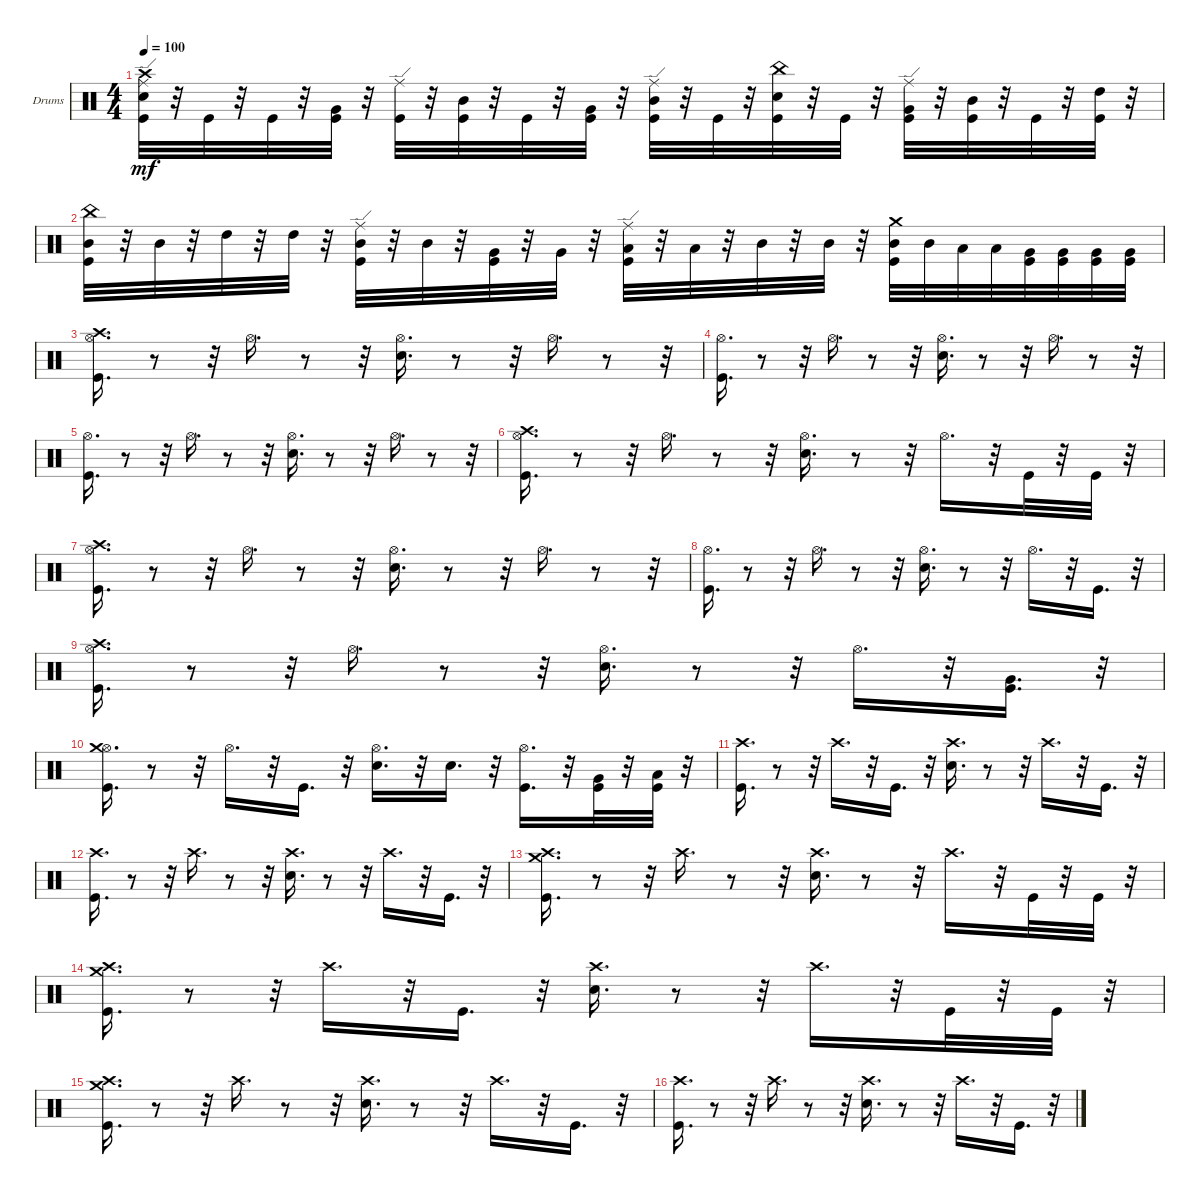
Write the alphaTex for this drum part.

\bracketExtendMode groupsimilarinstruments
\firstSystemTrackNameOrientation horizontal
\otherSystemsTrackNameOrientation horizontal
\track ("Drums" "Drums") {instrument percussion}
\staff {score}
\articulation defaults
\ts (4 4)
\tempo 100
\clef neutral
\ks c
("Ride (edge)" "Crash high (hit)" "Kick (hit)" "Snare (hit) 2").32{dy mf} r.32 "Kick (hit)".32 r.32 "Kick (hit)".32 r.32 ("Kick (hit)" "Very Low Tom (hit)").32 r.32 ("Ride (edge)" "Kick (hit)").32 r.32 ("Kick (hit)" "Mid Tom (hit)").32 r.32 "Kick (hit)".32 r.32 ("Kick (hit)" "Very Low Tom (hit)").32 r.32 ("Ride (edge)" "Kick (hit)" "Mid Tom (hit)").32 r.32 "Kick (hit)".32 r.32 ("China (hit)" "Snare (hit) 2" "Kick (hit)").32 r.32 "Kick (hit)".32 r.32 ("Ride (edge)" "Very Low Tom (hit)" "Kick (hit)").32 r.32 ("Mid Tom (hit)" "Kick (hit)").32 r.32 "Kick (hit)".32 r.32 ("High Tom (hit)" "Kick (hit)").32 r.32 |
("China (hit)" "Mid Tom (hit)" "Kick (hit)").32 r.32 "Mid Tom (hit)".32 r.32 "High Tom (hit)".32 r.32 "High Tom (hit)".32 r.32 ("Ride (edge)" "Kick (hit)" "Mid Tom (hit)").32 r.32 "Mid Tom (hit)".32 r.32 ("Kick (hit)" "Very Low Tom (hit)").32 r.32 "Very Low Tom (hit)".32 r.32 ("Ride (edge)" "Low Tom (hit)" "Kick (hit)").32 r.32 "Low Tom (hit)".32 r.32 "Mid Tom (hit)".32 r.32 "Mid Tom (hit)".32 r.32 ("Crash medium (hit)" "Mid Tom (hit)" "Kick (hit)").32 "Mid Tom (hit)".32 "Low Tom (hit)".32 "Low Tom (hit)".32 ("Very Low Tom (hit)" "Kick (hit)").32 ("Very Low Tom (hit)" "Kick (hit)").32 ("Very Low Tom (hit)" "Kick (hit)").32 ("Very Low Tom (hit)" "Kick (hit)").32 |
("Hi-Hat (open)" "Crash high (hit)" "Kick (hit)").16{d} r.8 r.32 "Hi-Hat (open)".16{d} r.8 r.32 ("Hi-Hat (open)" "Snare (hit) 2").16{d} r.8 r.32 "Hi-Hat (open)".16{d} r.8 r.32 |
("Hi-Hat (open)" "Kick (hit)").16{d} r.8 r.32 "Hi-Hat (open)".16{d} r.8 r.32 ("Hi-Hat (open)" "Snare (hit) 2").16{d} r.8 r.32 "Hi-Hat (open)".16{d} r.8 r.32 |
("Hi-Hat (open)" "Kick (hit)").16{d} r.8 r.32 "Hi-Hat (open)".16{d} r.8 r.32 ("Hi-Hat (open)" "Snare (hit) 2").16{d} r.8 r.32 "Hi-Hat (open)".16{d} r.8 r.32 |
("Hi-Hat (open)" "Crash high (hit)" "Kick (hit)").16{d} r.8 r.32 "Hi-Hat (open)".16{d} r.8 r.32 ("Hi-Hat (open)" "Snare (hit) 2").16{d} r.8 r.32 "Hi-Hat (open)".16{d} r.32 "Kick (hit)".32 r.32 "Kick (hit)".32 r.32 |
("Hi-Hat (open)" "Crash high (hit)" "Kick (hit)").16{d} r.8 r.32 "Hi-Hat (open)".16{d} r.8 r.32 ("Hi-Hat (open)" "Snare (hit) 2").16{d} r.8 r.32 "Hi-Hat (open)".16{d} r.8 r.32 |
("Hi-Hat (open)" "Kick (hit)").16{d} r.8 r.32 "Hi-Hat (open)".16{d} r.8 r.32 ("Hi-Hat (open)" "Snare (hit) 2").16{d} r.8 r.32 "Hi-Hat (open)".16{d} r.32 "Kick (hit)".16{d} r.32 |
("Hi-Hat (open)" "Crash high (hit)" "Kick (hit)").16{d} r.8 r.32 "Hi-Hat (open)".16{d} r.8 r.32 ("Hi-Hat (open)" "Snare (hit) 2").16{d} r.8 r.32 "Hi-Hat (open)".16{d} r.32 ("Very Low Tom (hit)" "Kick (hit)").16{d} r.32 |
("Hi-Hat (open)" "Kick (hit)" "Crash medium (hit)").16{d} r.8 r.32 "Hi-Hat (open)".16{d} r.32 "Kick (hit)".16{d} r.32 ("Hi-Hat (open)" "Snare (hit) 2").16{d} r.32 "Snare (hit) 2".16{d} r.32 ("Hi-Hat (open)" "Kick (hit)").16{d} r.32 ("Very Low Tom (hit)" "Kick (hit)").32 r.32 ("Low Tom (hit)" "Kick (hit)").32 r.32 |
("Crash high (hit)" "Kick (hit)").16{d} r.8 r.32 "Crash high (hit)".16{d} r.32 "Kick (hit)".16{d} r.32 ("Crash high (hit)" "Snare (hit) 2").16{d} r.8 r.32 "Crash high (hit)".16{d} r.32 "Kick (hit)".16{d} r.32 |
("Crash high (hit)" "Kick (hit)").16{d} r.8 r.32 "Crash high (hit)".16{d} r.8 r.32 ("Crash high (hit)" "Snare (hit) 2").16{d} r.8 r.32 "Crash high (hit)".16{d} r.32 "Kick (hit)".16{d} r.32 |
("Crash medium (hit)" "Kick (hit)" "Crash high (hit)").16{d} r.8 r.32 "Crash high (hit)".16{d} r.8 r.32 ("Snare (hit) 2" "Crash high (hit)").16{d} r.8 r.32 "Crash high (hit)".16{d} r.32 "Kick (hit)".32 r.32 "Kick (hit)".32 r.32 |
("Kick (hit)" "Crash high (hit)" "Crash medium (hit)").16{d} r.8 r.32 "Crash high (hit)".16{d} r.32 "Kick (hit)".16{d} r.32 ("Crash high (hit)" "Snare (hit) 2").16{d} r.8 r.32 "Crash high (hit)".16{d} r.32 "Kick (hit)".32 r.32 "Kick (hit)".32 r.32 |
("Crash high (hit)" "Kick (hit)" "Crash medium (hit)").16{d} r.8 r.32 "Crash high (hit)".16{d} r.8 r.32 ("Crash high (hit)" "Snare (hit) 2").16{d} r.8 r.32 "Crash high (hit)".16{d} r.32 "Kick (hit)".16{d} r.32 |
("Kick (hit)" "Crash high (hit)").16{d} r.8 r.32 "Crash high (hit)".16{d} r.8 r.32 ("Snare (hit) 2" "Crash high (hit)").16{d} r.8 r.32 "Crash high (hit)".16{d} r.32 "Kick (hit)".16{d} r.32
